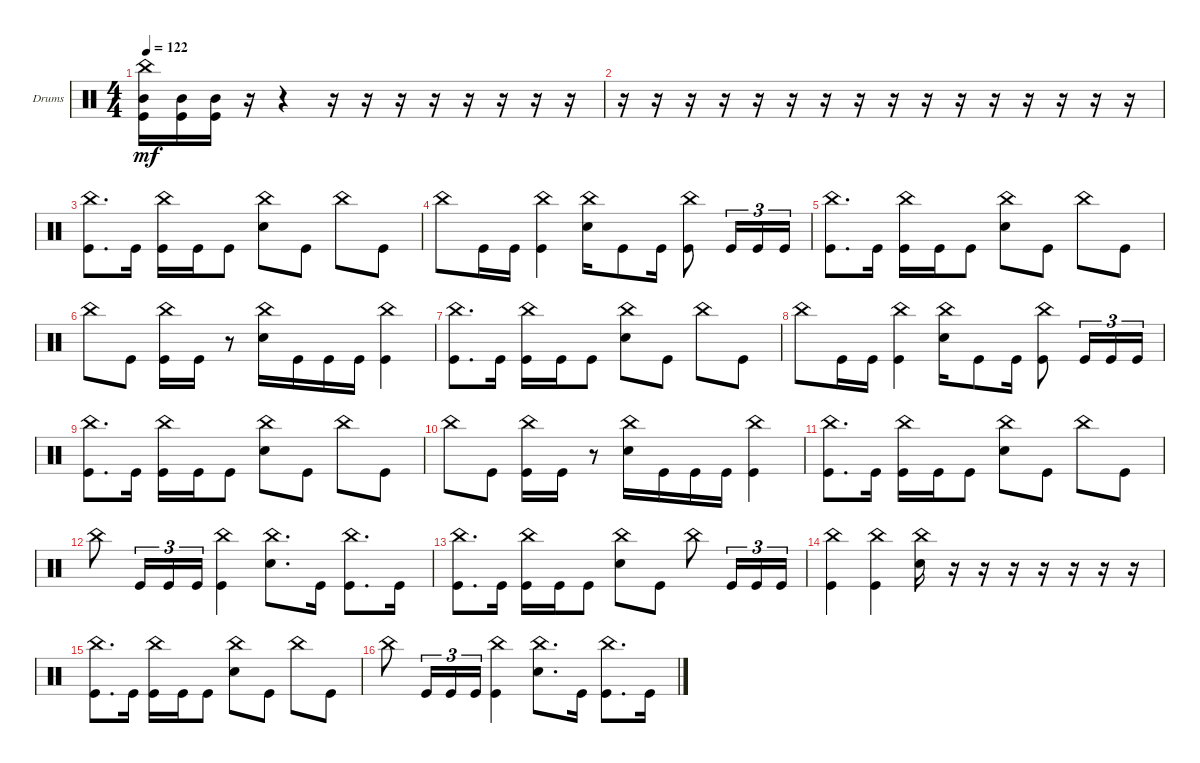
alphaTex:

\defaultSystemsLayout 4
\bracketExtendMode groupsimilarinstruments
\firstSystemTrackNameOrientation horizontal
\otherSystemsTrackNameOrientation horizontal
\track ("Drumkit" "Drums") {instrument percussion}
\staff {score}
\articulation defaults
\ts (4 4)
\tempo 122
\clef neutral
\ks c
("Kick (hit)" "Mid Tom (hit)" "China (hit)").16{dy mf} ("Kick (hit)" "Mid Tom (hit)").16 ("Kick (hit)" "Mid Tom (hit)").16 r.16 r.4 r.16 r.16 r.16 r.16 r.16 r.16 r.16 r.16 |
r.16 r.16 r.16 r.16 r.16 r.16 r.16 r.16 r.16 r.16 r.16 r.16 r.16 r.16 r.16 r.16 |
("Kick (hit)" "China (hit)").8{d} "Kick (hit)".16 ("Kick (hit)" "China (hit)").16 "Kick (hit)".16 "Kick (hit)".8 ("China (hit)" "Snare (hit) 2").8 "Kick (hit)".8 "China (hit)".8 "Kick (hit)".8 |
"China (hit)".8 "Kick (hit)".16 "Kick (hit)".16 ("Kick (hit)" "China (hit)").4 ("China (hit)" "Snare (hit) 2").16 "Kick (hit)".8 "Kick (hit)".16 ("China (hit)" "Kick (hit)").8 "Kick (hit)".16{tu (3 2)} "Kick (hit)".16{tu (3 2)} "Kick (hit)".16{tu (3 2)} |
("Kick (hit)" "China (hit)").8{d} "Kick (hit)".16 ("Kick (hit)" "China (hit)").16 "Kick (hit)".16 "Kick (hit)".8 ("China (hit)" "Snare (hit) 2").8 "Kick (hit)".8 "China (hit)".8 "Kick (hit)".8 |
"China (hit)".8 "Kick (hit)".8 ("Kick (hit)" "China (hit)").16 "Kick (hit)".16 r.8 ("China (hit)" "Snare (hit) 2").16 "Kick (hit)".16 "Kick (hit)".16 "Kick (hit)".16 ("Kick (hit)" "China (hit)").4 |
("Kick (hit)" "China (hit)").8{d} "Kick (hit)".16 ("Kick (hit)" "China (hit)").16 "Kick (hit)".16 "Kick (hit)".8 ("China (hit)" "Snare (hit) 2").8 "Kick (hit)".8 "China (hit)".8 "Kick (hit)".8 |
"China (hit)".8 "Kick (hit)".16 "Kick (hit)".16 ("Kick (hit)" "China (hit)").4 ("China (hit)" "Snare (hit) 2").16 "Kick (hit)".8 "Kick (hit)".16 ("China (hit)" "Kick (hit)").8 "Kick (hit)".16{tu (3 2)} "Kick (hit)".16{tu (3 2)} "Kick (hit)".16{tu (3 2)} |
("Kick (hit)" "China (hit)").8{d} "Kick (hit)".16 ("Kick (hit)" "China (hit)").16 "Kick (hit)".16 "Kick (hit)".8 ("China (hit)" "Snare (hit) 2").8 "Kick (hit)".8 "China (hit)".8 "Kick (hit)".8 |
"China (hit)".8 "Kick (hit)".8 ("Kick (hit)" "China (hit)").16 "Kick (hit)".16 r.8 ("China (hit)" "Snare (hit) 2").16 "Kick (hit)".16 "Kick (hit)".16 "Kick (hit)".16 ("Kick (hit)" "China (hit)").4 |
("Kick (hit)" "China (hit)").8{d} "Kick (hit)".16 ("Kick (hit)" "China (hit)").16 "Kick (hit)".16 "Kick (hit)".8 ("China (hit)" "Snare (hit) 2").8 "Kick (hit)".8 "China (hit)".8 "Kick (hit)".8 |
"China (hit)".8 "Kick (hit)".16{tu (3 2)} "Kick (hit)".16{tu (3 2)} "Kick (hit)".16{tu (3 2)} ("Kick (hit)" "China (hit)").4 ("China (hit)" "Snare (hit) 2").8{d} "Kick (hit)".16 ("China (hit)" "Kick (hit)").8{d} "Kick (hit)".16 |
("Kick (hit)" "China (hit)").8{d} "Kick (hit)".16 ("Kick (hit)" "China (hit)").16 "Kick (hit)".16 "Kick (hit)".8 ("China (hit)" "Snare (hit) 2").8 "Kick (hit)".8 "China (hit)".8 "Kick (hit)".16{tu (3 2)} "Kick (hit)".16{tu (3 2)} "Kick (hit)".16{tu (3 2)} |
("Kick (hit)" "China (hit)").4 ("China (hit)" "Kick (hit)").4 ("China (hit)" "Snare (hit) 2").16 r.16 r.16 r.16 r.16 r.16 r.16 r.16 |
("Kick (hit)" "China (hit)").8{d} "Kick (hit)".16 ("Kick (hit)" "China (hit)").16 "Kick (hit)".16 "Kick (hit)".8 ("China (hit)" "Snare (hit) 2").8 "Kick (hit)".8 "China (hit)".8 "Kick (hit)".8 |
"China (hit)".8 "Kick (hit)".16{tu (3 2)} "Kick (hit)".16{tu (3 2)} "Kick (hit)".16{tu (3 2)} ("Kick (hit)" "China (hit)").4 ("China (hit)" "Snare (hit) 2").8{d} "Kick (hit)".16 ("China (hit)" "Kick (hit)").8{d} "Kick (hit)".16
